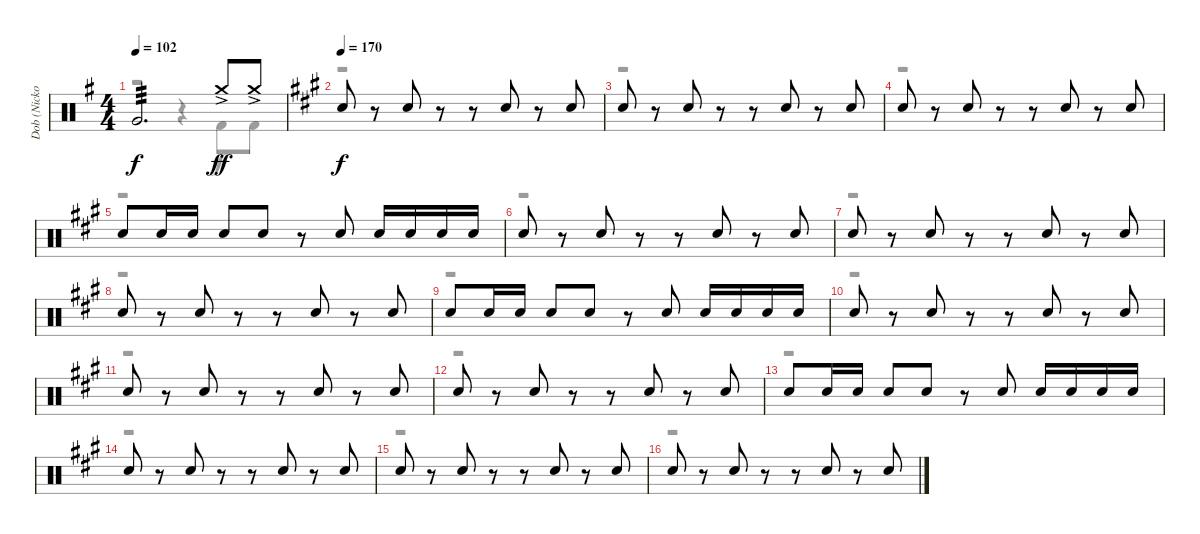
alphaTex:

\track ("Dob (Nicko McBrain)" "Dob (Nicko") {instrument percussion}
\staff {score}
\articulation defaults
\voice
\ts (4 4)
\tempo 102
\clef neutral
\ks g "Very Low Tom (hit)".2{d tp 3 dy f} "Crash medium (hit)"{ac}.8{dy ff} "Crash medium (hit)"{ac}.8
|
\tempo 170
\ks a "Electric Snare (hit)".8{dy f}
r.8 "Electric Snare (hit)".8 r.8 r.8 "Electric Snare (hit)".8 r.8 "Electric Snare (hit)".8 |
"Electric Snare (hit)".8 r.8 "Electric Snare (hit)".8 r.8 r.8 "Electric Snare (hit)".8 r.8 "Electric Snare (hit)".8 |
"Electric Snare (hit)".8 r.8 "Electric Snare (hit)".8 r.8 r.8 "Electric Snare (hit)".8 r.8 "Electric Snare (hit)".8 |
"Electric Snare (hit)".8 "Electric Snare (hit)".16 "Electric Snare (hit)".16 "Electric Snare (hit)".8 "Electric Snare (hit)".8 r.8 "Electric Snare (hit)".8 "Electric Snare (hit)".16 "Electric Snare (hit)".16 "Electric Snare (hit)".16 "Electric Snare (hit)".16 |
"Electric Snare (hit)".8 r.8 "Electric Snare (hit)".8 r.8 r.8 "Electric Snare (hit)".8 r.8 "Electric Snare (hit)".8 |
"Electric Snare (hit)".8 r.8 "Electric Snare (hit)".8 r.8 r.8 "Electric Snare (hit)".8 r.8 "Electric Snare (hit)".8 |
"Electric Snare (hit)".8 r.8 "Electric Snare (hit)".8 r.8 r.8 "Electric Snare (hit)".8 r.8 "Electric Snare (hit)".8 |
"Electric Snare (hit)".8 "Electric Snare (hit)".16 "Electric Snare (hit)".16 "Electric Snare (hit)".8 "Electric Snare (hit)".8 r.8 "Electric Snare (hit)".8 "Electric Snare (hit)".16 "Electric Snare (hit)".16 "Electric Snare (hit)".16 "Electric Snare (hit)".16 |
"Electric Snare (hit)".8 r.8 "Electric Snare (hit)".8 r.8 r.8 "Electric Snare (hit)".8 r.8 "Electric Snare (hit)".8 |
"Electric Snare (hit)".8 r.8 "Electric Snare (hit)".8 r.8 r.8 "Electric Snare (hit)".8 r.8 "Electric Snare (hit)".8 |
"Electric Snare (hit)".8 r.8 "Electric Snare (hit)".8 r.8 r.8 "Electric Snare (hit)".8 r.8 "Electric Snare (hit)".8 |
"Electric Snare (hit)".8 "Electric Snare (hit)".16 "Electric Snare (hit)".16 "Electric Snare (hit)".8 "Electric Snare (hit)".8 r.8 "Electric Snare (hit)".8 "Electric Snare (hit)".16 "Electric Snare (hit)".16 "Electric Snare (hit)".16 "Electric Snare (hit)".16 |
"Electric Snare (hit)".8 r.8 "Electric Snare (hit)".8 r.8 r.8 "Electric Snare (hit)".8 r.8 "Electric Snare (hit)".8 |
"Electric Snare (hit)".8 r.8 "Electric Snare (hit)".8 r.8 r.8 "Electric Snare (hit)".8 r.8 "Electric Snare (hit)".8 |
"Electric Snare (hit)".8 r.8 "Electric Snare (hit)".8 r.8 r.8 "Electric Snare (hit)".8 r.8 "Electric Snare (hit)".8
\voice
\clef neutral
\ottava regular
\simile none
\ks g
r.2{dy f} r.4 "Kick (hit) 2".8 "Kick (hit) 2".8 |
\ks a
r.1 |
r.1 |
r.1 |
r.1 |
r.1 |
r.1 |
r.1 |
r.1 |
r.1 |
r.1 |
r.1 |
r.1 |
r.1 |
r.1 |
r.1
